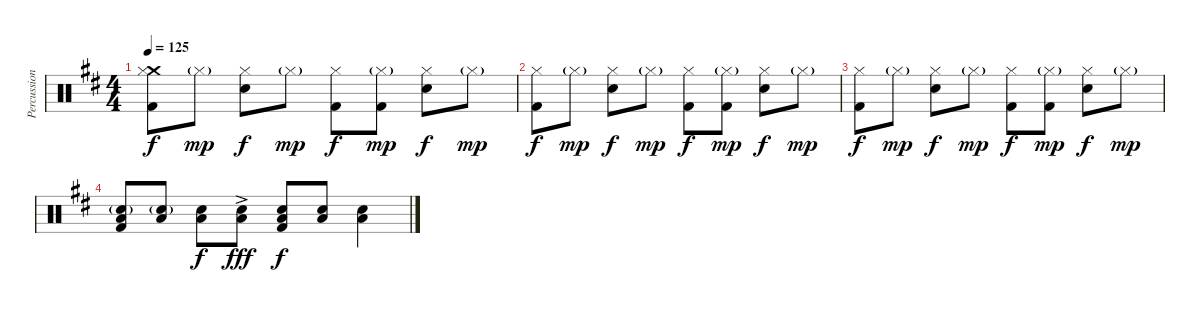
\track ("Percussion" "Percussion") {instrument percussion}
\staff {score}
\articulation defaults
\ts (4 4)
\tempo 125
\clef neutral
\ks bminor
("Crash medium (hit)" "Hi-Hat (closed)" "Kick (hit) 2").8{dy f} "Hi-Hat (closed)"{g}.8{dy mp} ("Hi-Hat (closed)" "Snare (hit) 2").8{dy f} "Hi-Hat (closed)"{g}.8{dy mp} ("Hi-Hat (closed)" "Kick (hit) 2").8{dy f} ("Hi-Hat (closed)"{g} "Kick (hit) 2").8{dy mp} ("Hi-Hat (closed)" "Snare (hit) 2").8{dy f} "Hi-Hat (closed)"{g}.8{dy mp} |
("Hi-Hat (closed)" "Kick (hit) 2").8{dy f} "Hi-Hat (closed)"{g}.8{dy mp} ("Hi-Hat (closed)" "Snare (hit) 2").8{dy f} "Hi-Hat (closed)"{g}.8{dy mp} ("Hi-Hat (closed)" "Kick (hit) 2").8{dy f} ("Hi-Hat (closed)"{g} "Kick (hit) 2").8{dy mp} ("Hi-Hat (closed)" "Snare (hit) 2").8{dy f} "Hi-Hat (closed)"{g}.8{dy mp} |
("Hi-Hat (closed)" "Kick (hit) 2").8{dy f} "Hi-Hat (closed)"{g}.8{dy mp} ("Hi-Hat (closed)" "Snare (hit) 2").8{dy f} "Hi-Hat (closed)"{g}.8{dy mp} ("Hi-Hat (closed)" "Kick (hit) 2").8{dy f} ("Hi-Hat (closed)"{g} "Kick (hit) 2").8{dy mp} ("Hi-Hat (closed)" "Snare (hit) 2").8{dy f} "Hi-Hat (closed)"{g}.8{dy mp} |
("Low Floor Tom (hit)" "Electric Snare (hit)"{g} "Kick (hit) 2").8 ("Low Floor Tom (hit)" "Electric Snare (hit)"{g}).8 ("Low Floor Tom (hit)" "Electric Snare (hit)").8{dy f} ("Low Floor Tom (hit)" "Electric Snare (hit)"{ac}).8{dy fff} ("Low Floor Tom (hit)" "Snare (hit) 2" "Kick (hit) 2").8{dy f} ("Low Floor Tom (hit)" "Snare (hit) 2").8 ("Low Floor Tom (hit)" "Snare (hit) 2").4
